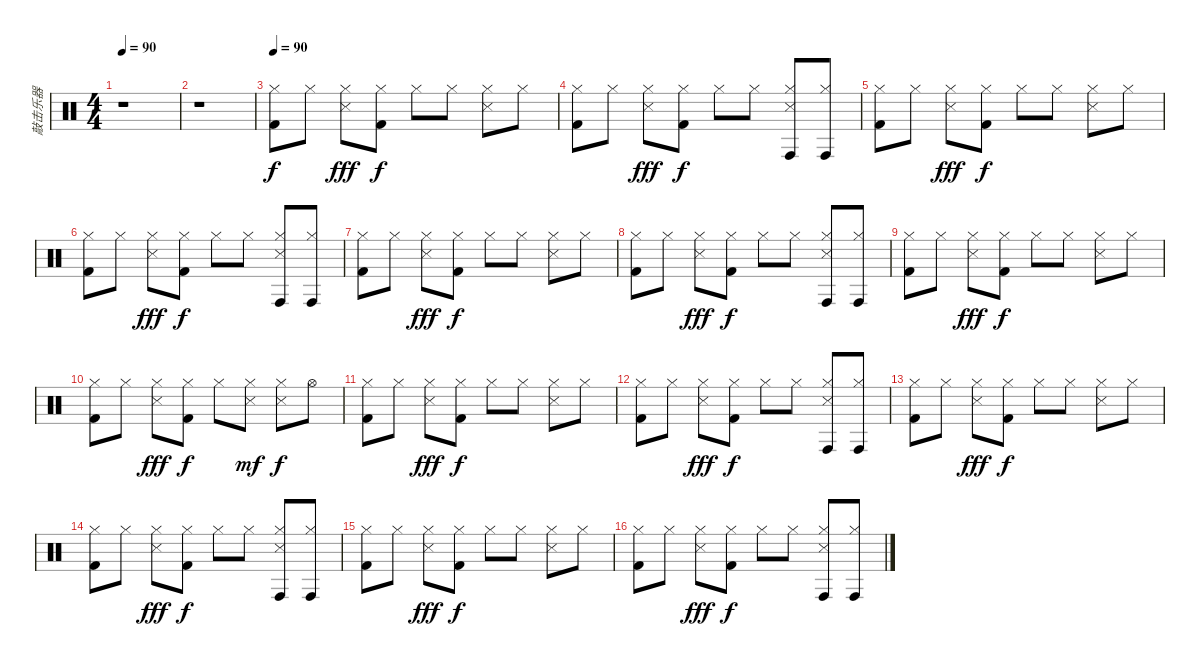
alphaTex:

\track ("敲击乐器" "敲击乐器") {instrument percussion}
\staff {score}
\articulation defaults
\ts (4 4)
\tempo 90
\clef neutral
\ks c
r.1{dy f} |
r.1 |
\tempo 90
("Hi-Hat (closed)" "Kick (hit) 2").8 "Hi-Hat (closed)".8 ("Hi-Hat (closed)" "Snare (side stick) 3").8{dy fff} ("Hi-Hat (closed)" "Kick (hit) 2").8{dy f} "Hi-Hat (closed)".8 "Hi-Hat (closed)".8 ("Hi-Hat (closed)" "Snare (side stick) 3").8 "Hi-Hat (closed)".8 |
("Hi-Hat (closed)" "Kick (hit) 2").8 "Hi-Hat (closed)".8 ("Hi-Hat (closed)" "Snare (side stick) 3").8{dy fff} ("Hi-Hat (closed)" "Kick (hit) 2").8{dy f} "Hi-Hat (closed)".8 "Hi-Hat (closed)".8 ("Hi-Hat (closed)" "Conga high (hit)" "Snare (side stick) 3").8 ("Hi-Hat (closed)" "Conga high (hit)").8 |
("Hi-Hat (closed)" "Kick (hit) 2").8 "Hi-Hat (closed)".8 ("Hi-Hat (closed)" "Snare (side stick) 3").8{dy fff} ("Hi-Hat (closed)" "Kick (hit) 2").8{dy f} "Hi-Hat (closed)".8 "Hi-Hat (closed)".8 ("Hi-Hat (closed)" "Snare (side stick) 3").8 "Hi-Hat (closed)".8 |
("Hi-Hat (closed)" "Kick (hit) 2").8 "Hi-Hat (closed)".8 ("Hi-Hat (closed)" "Snare (side stick) 3").8{dy fff} ("Hi-Hat (closed)" "Kick (hit) 2").8{dy f} "Hi-Hat (closed)".8 "Hi-Hat (closed)".8 ("Hi-Hat (closed)" "Conga high (hit)" "Snare (side stick) 3").8 ("Hi-Hat (closed)" "Conga high (hit)").8 |
("Hi-Hat (closed)" "Kick (hit) 2").8 "Hi-Hat (closed)".8 ("Hi-Hat (closed)" "Snare (side stick) 3").8{dy fff} ("Hi-Hat (closed)" "Kick (hit) 2").8{dy f} "Hi-Hat (closed)".8 "Hi-Hat (closed)".8 ("Hi-Hat (closed)" "Snare (side stick) 3").8 "Hi-Hat (closed)".8 |
("Hi-Hat (closed)" "Kick (hit) 2").8 "Hi-Hat (closed)".8 ("Hi-Hat (closed)" "Snare (side stick) 3").8{dy fff} ("Hi-Hat (closed)" "Kick (hit) 2").8{dy f} "Hi-Hat (closed)".8 "Hi-Hat (closed)".8 ("Hi-Hat (closed)" "Conga high (hit)" "Snare (side stick) 3").8 ("Hi-Hat (closed)" "Conga high (hit)").8 |
("Hi-Hat (closed)" "Kick (hit) 2").8 "Hi-Hat (closed)".8 ("Hi-Hat (closed)" "Snare (side stick) 3").8{dy fff} ("Hi-Hat (closed)" "Kick (hit) 2").8{dy f} "Hi-Hat (closed)".8 "Hi-Hat (closed)".8 ("Hi-Hat (closed)" "Snare (side stick) 3").8 "Hi-Hat (closed)".8 |
("Hi-Hat (closed)" "Kick (hit) 2").8 "Hi-Hat (closed)".8 ("Hi-Hat (closed)" "Snare (side stick) 3").8{dy fff} ("Hi-Hat (closed)" "Kick (hit) 2").8{dy f} "Hi-Hat (closed)".8 ("Hi-Hat (closed)" "Snare (side stick) 3").8{dy mf} ("Hi-Hat (closed)" "Snare (side stick) 3").8{dy f} "Hi-Hat (open)".8 |
("Hi-Hat (closed)" "Kick (hit) 2").8 "Hi-Hat (closed)".8 ("Hi-Hat (closed)" "Snare (side stick) 3").8{dy fff} ("Hi-Hat (closed)" "Kick (hit) 2").8{dy f} "Hi-Hat (closed)".8 "Hi-Hat (closed)".8 ("Hi-Hat (closed)" "Snare (side stick) 3").8 "Hi-Hat (closed)".8 |
("Hi-Hat (closed)" "Kick (hit) 2").8 "Hi-Hat (closed)".8 ("Hi-Hat (closed)" "Snare (side stick) 3").8{dy fff} ("Hi-Hat (closed)" "Kick (hit) 2").8{dy f} "Hi-Hat (closed)".8 "Hi-Hat (closed)".8 ("Hi-Hat (closed)" "Conga high (hit)" "Snare (side stick) 3").8 ("Hi-Hat (closed)" "Conga high (hit)").8 |
("Hi-Hat (closed)" "Kick (hit) 2").8 "Hi-Hat (closed)".8 ("Hi-Hat (closed)" "Snare (side stick) 3").8{dy fff} ("Hi-Hat (closed)" "Kick (hit) 2").8{dy f} "Hi-Hat (closed)".8 "Hi-Hat (closed)".8 ("Hi-Hat (closed)" "Snare (side stick) 3").8 "Hi-Hat (closed)".8 |
("Hi-Hat (closed)" "Kick (hit) 2").8 "Hi-Hat (closed)".8 ("Hi-Hat (closed)" "Snare (side stick) 3").8{dy fff} ("Hi-Hat (closed)" "Kick (hit) 2").8{dy f} "Hi-Hat (closed)".8 "Hi-Hat (closed)".8 ("Hi-Hat (closed)" "Conga high (hit)" "Snare (side stick) 3").8 ("Hi-Hat (closed)" "Conga high (hit)").8 |
("Hi-Hat (closed)" "Kick (hit) 2").8 "Hi-Hat (closed)".8 ("Hi-Hat (closed)" "Snare (side stick) 3").8{dy fff} ("Hi-Hat (closed)" "Kick (hit) 2").8{dy f} "Hi-Hat (closed)".8 "Hi-Hat (closed)".8 ("Hi-Hat (closed)" "Snare (side stick) 3").8 "Hi-Hat (closed)".8 |
("Hi-Hat (closed)" "Kick (hit) 2").8 "Hi-Hat (closed)".8 ("Hi-Hat (closed)" "Snare (side stick) 3").8{dy fff} ("Hi-Hat (closed)" "Kick (hit) 2").8{dy f} "Hi-Hat (closed)".8 "Hi-Hat (closed)".8 ("Hi-Hat (closed)" "Conga high (hit)" "Snare (side stick) 3").8 ("Hi-Hat (closed)" "Conga high (hit)").8
